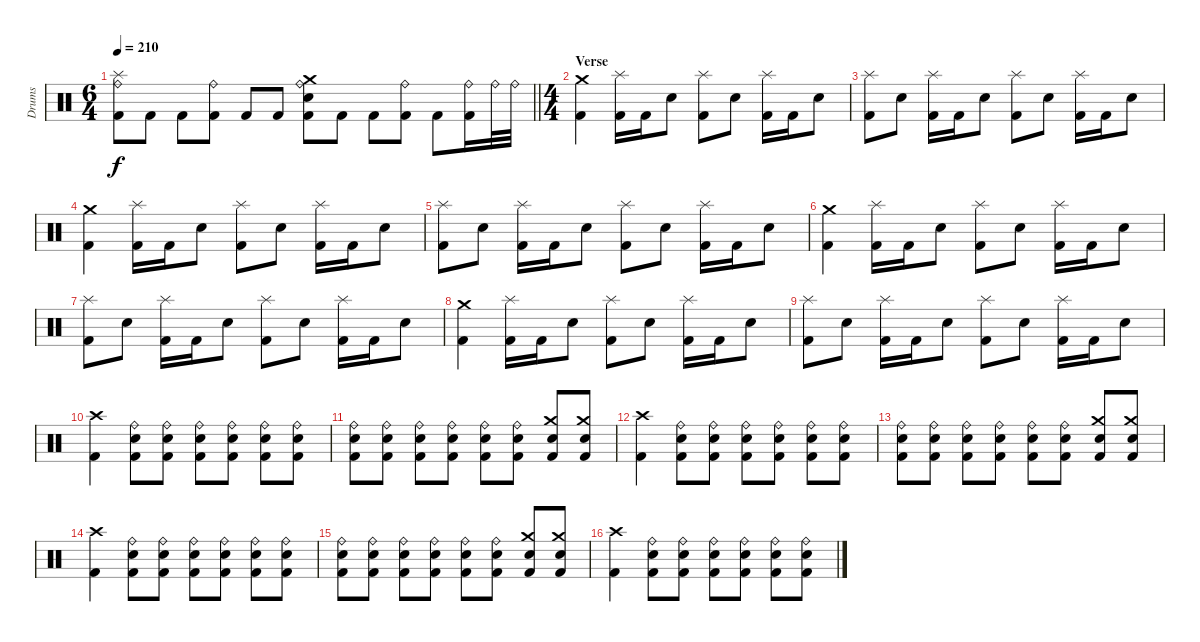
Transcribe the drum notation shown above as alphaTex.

\track ("Drums" "Drums") {instrument percussion}
\staff {score}
\articulation defaults
\ts (6 4)
\tempo 210
\clef neutral
\barLineRight lightlight
\ks c
("Splash (hit)" "Ride (bell)" "Kick (hit) 2").8{dy f} "Kick (hit) 2".8 "Kick (hit) 2".8 ("Ride (bell)" "Kick (hit) 2").8 "Kick (hit) 2".8 "Kick (hit) 2".8 ("Crash medium (hit)" "Ride (bell)" "Electric Snare (hit)" "Kick (hit) 2").8 "Kick (hit) 2".8 "Kick (hit) 2".8 ("Ride (bell)" "Kick (hit) 2").8 "Kick (hit) 2".8 ("Ride (bell)" "Kick (hit) 2").16 "Ride (bell)".32 "Ride (bell)".32 |
\ts (4 4)
\section ("" "Verse")
("Crash medium (hit)" "Kick (hit) 2").4 ("Splash (hit)" "Kick (hit) 2").16 "Kick (hit) 2".16 "Electric Snare (hit)".8 ("Splash (hit)" "Kick (hit) 2").8 "Electric Snare (hit)".8 ("Splash (hit)" "Kick (hit) 2").16 "Kick (hit) 2".16 "Electric Snare (hit)".8 |
("Splash (hit)" "Kick (hit) 2").8 "Electric Snare (hit)".8 ("Splash (hit)" "Kick (hit) 2").16 "Kick (hit) 2".16 "Electric Snare (hit)".8 ("Splash (hit)" "Kick (hit) 2").8 "Electric Snare (hit)".8 ("Splash (hit)" "Kick (hit) 2").16 "Kick (hit) 2".16 "Electric Snare (hit)".8 |
("Crash medium (hit)" "Kick (hit) 2").4 ("Splash (hit)" "Kick (hit) 2").16 "Kick (hit) 2".16 "Electric Snare (hit)".8 ("Splash (hit)" "Kick (hit) 2").8 "Electric Snare (hit)".8 ("Splash (hit)" "Kick (hit) 2").16 "Kick (hit) 2".16 "Electric Snare (hit)".8 |
("Splash (hit)" "Kick (hit) 2").8 "Electric Snare (hit)".8 ("Splash (hit)" "Kick (hit) 2").16 "Kick (hit) 2".16 "Electric Snare (hit)".8 ("Splash (hit)" "Kick (hit) 2").8 "Electric Snare (hit)".8 ("Splash (hit)" "Kick (hit) 2").16 "Kick (hit) 2".16 "Electric Snare (hit)".8 |
("Crash medium (hit)" "Kick (hit) 2").4 ("Splash (hit)" "Kick (hit) 2").16 "Kick (hit) 2".16 "Electric Snare (hit)".8 ("Splash (hit)" "Kick (hit) 2").8 "Electric Snare (hit)".8 ("Splash (hit)" "Kick (hit) 2").16 "Kick (hit) 2".16 "Electric Snare (hit)".8 |
("Splash (hit)" "Kick (hit) 2").8 "Electric Snare (hit)".8 ("Splash (hit)" "Kick (hit) 2").16 "Kick (hit) 2".16 "Electric Snare (hit)".8 ("Splash (hit)" "Kick (hit) 2").8 "Electric Snare (hit)".8 ("Splash (hit)" "Kick (hit) 2").16 "Kick (hit) 2".16 "Electric Snare (hit)".8 |
("Crash medium (hit)" "Kick (hit) 2").4 ("Splash (hit)" "Kick (hit) 2").16 "Kick (hit) 2".16 "Electric Snare (hit)".8 ("Splash (hit)" "Kick (hit) 2").8 "Electric Snare (hit)".8 ("Splash (hit)" "Kick (hit) 2").16 "Kick (hit) 2".16 "Electric Snare (hit)".8 |
("Splash (hit)" "Kick (hit) 2").8 "Electric Snare (hit)".8 ("Splash (hit)" "Kick (hit) 2").16 "Kick (hit) 2".16 "Electric Snare (hit)".8 ("Splash (hit)" "Kick (hit) 2").8 "Electric Snare (hit)".8 ("Splash (hit)" "Kick (hit) 2").16 "Kick (hit) 2".16 "Electric Snare (hit)".8 |
("Crash high (hit)" "Kick (hit) 2").4 ("Ride (bell)" "Electric Snare (hit)" "Kick (hit) 2").8 ("Ride (bell)" "Electric Snare (hit)" "Kick (hit) 2").8 ("Ride (bell)" "Electric Snare (hit)" "Kick (hit) 2").8 ("Ride (bell)" "Electric Snare (hit)" "Kick (hit) 2").8 ("Ride (bell)" "Electric Snare (hit)" "Kick (hit) 2").8 ("Ride (bell)" "Electric Snare (hit)" "Kick (hit) 2").8 |
("Ride (bell)" "Electric Snare (hit)" "Kick (hit) 2").8 ("Ride (bell)" "Electric Snare (hit)" "Kick (hit) 2").8 ("Ride (bell)" "Electric Snare (hit)" "Kick (hit) 2").8 ("Ride (bell)" "Electric Snare (hit)" "Kick (hit) 2").8 ("Ride (bell)" "Electric Snare (hit)" "Kick (hit) 2").8 ("Ride (bell)" "Electric Snare (hit)" "Kick (hit) 2").8 ("Crash medium (hit)" "Electric Snare (hit)" "Kick (hit) 2").8 ("Crash medium (hit)" "Electric Snare (hit)" "Kick (hit) 2").8 |
("Crash high (hit)" "Kick (hit) 2").4 ("Ride (bell)" "Electric Snare (hit)" "Kick (hit) 2").8 ("Ride (bell)" "Electric Snare (hit)" "Kick (hit) 2").8 ("Ride (bell)" "Electric Snare (hit)" "Kick (hit) 2").8 ("Ride (bell)" "Electric Snare (hit)" "Kick (hit) 2").8 ("Ride (bell)" "Electric Snare (hit)" "Kick (hit) 2").8 ("Ride (bell)" "Electric Snare (hit)" "Kick (hit) 2").8 |
("Ride (bell)" "Electric Snare (hit)" "Kick (hit) 2").8 ("Ride (bell)" "Electric Snare (hit)" "Kick (hit) 2").8 ("Ride (bell)" "Electric Snare (hit)" "Kick (hit) 2").8 ("Ride (bell)" "Electric Snare (hit)" "Kick (hit) 2").8 ("Ride (bell)" "Electric Snare (hit)" "Kick (hit) 2").8 ("Ride (bell)" "Electric Snare (hit)" "Kick (hit) 2").8 ("Crash medium (hit)" "Electric Snare (hit)" "Kick (hit) 2").8 ("Crash medium (hit)" "Electric Snare (hit)" "Kick (hit) 2").8 |
("Crash high (hit)" "Kick (hit) 2").4 ("Ride (bell)" "Electric Snare (hit)" "Kick (hit) 2").8 ("Ride (bell)" "Electric Snare (hit)" "Kick (hit) 2").8 ("Ride (bell)" "Electric Snare (hit)" "Kick (hit) 2").8 ("Ride (bell)" "Electric Snare (hit)" "Kick (hit) 2").8 ("Ride (bell)" "Electric Snare (hit)" "Kick (hit) 2").8 ("Ride (bell)" "Electric Snare (hit)" "Kick (hit) 2").8 |
("Ride (bell)" "Electric Snare (hit)" "Kick (hit) 2").8 ("Ride (bell)" "Electric Snare (hit)" "Kick (hit) 2").8 ("Ride (bell)" "Electric Snare (hit)" "Kick (hit) 2").8 ("Ride (bell)" "Electric Snare (hit)" "Kick (hit) 2").8 ("Ride (bell)" "Electric Snare (hit)" "Kick (hit) 2").8 ("Ride (bell)" "Electric Snare (hit)" "Kick (hit) 2").8 ("Crash medium (hit)" "Electric Snare (hit)" "Kick (hit) 2").8 ("Crash medium (hit)" "Electric Snare (hit)" "Kick (hit) 2").8 |
("Crash high (hit)" "Kick (hit) 2").4 ("Ride (bell)" "Electric Snare (hit)" "Kick (hit) 2").8 ("Ride (bell)" "Electric Snare (hit)" "Kick (hit) 2").8 ("Ride (bell)" "Electric Snare (hit)" "Kick (hit) 2").8 ("Ride (bell)" "Electric Snare (hit)" "Kick (hit) 2").8 ("Ride (bell)" "Electric Snare (hit)" "Kick (hit) 2").8 ("Ride (bell)" "Electric Snare (hit)" "Kick (hit) 2").8
